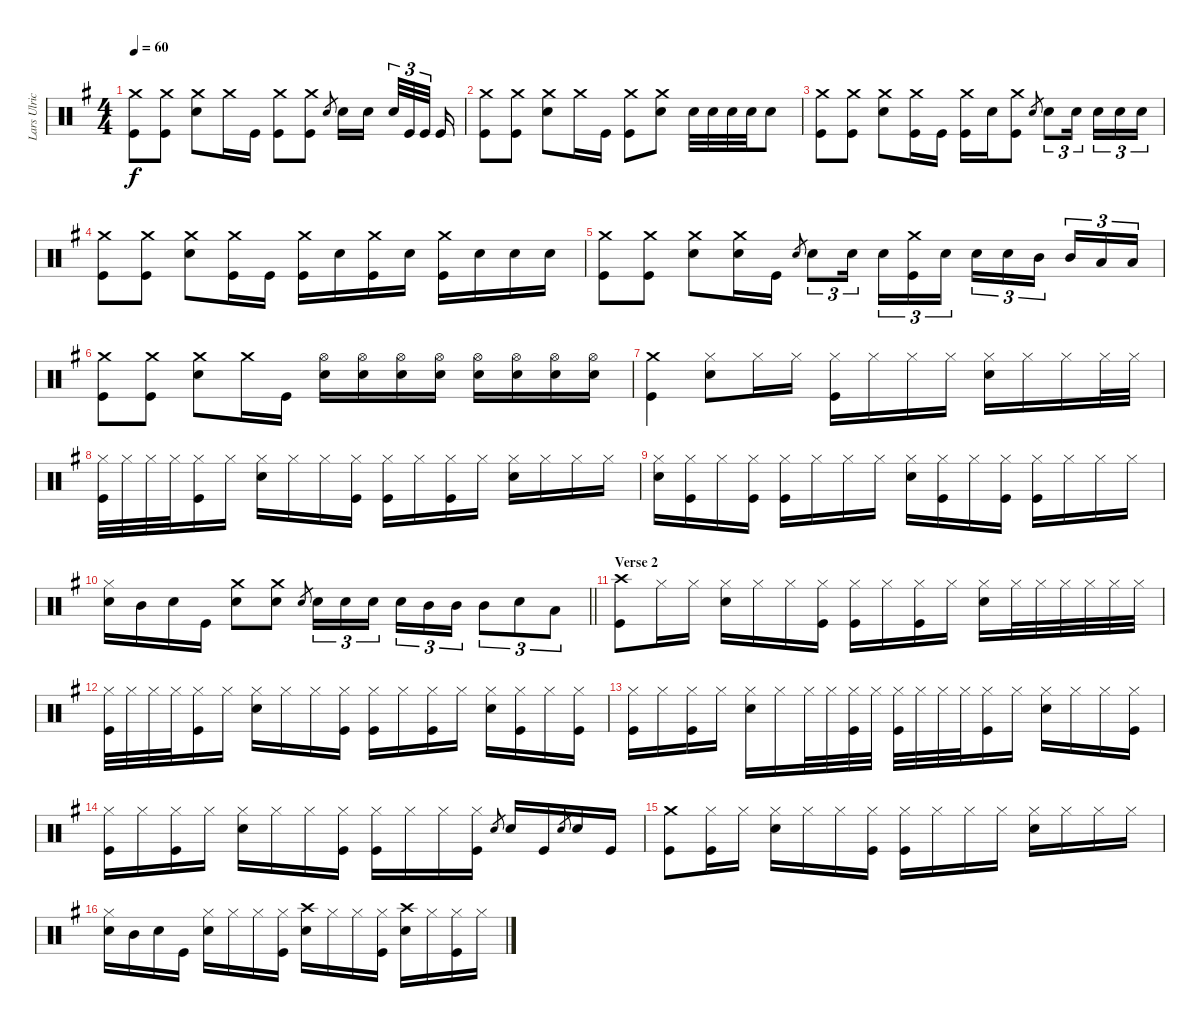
\track ("Lars Ulrich [Drums]" "Lars Ulric") {instrument percussion}
\staff {score}
\articulation defaults
\ts (4 4)
\tempo 60
\clef neutral
\ks g
("Kick (hit)" "Crash medium (hit)").8{dy f} ("Kick (hit)" "Crash medium (hit)").8 ("Electric Snare (hit)" "Crash medium (hit)").8 "Crash medium (hit)".16 "Kick (hit)".16 ("Kick (hit)" "Crash medium (hit)").8 ("Kick (hit)" "Crash medium (hit)").8 "Electric Snare (hit)".8{gr} "Electric Snare (hit)".16 "Electric Snare (hit)".16{beam splitsecondary} "Electric Snare (hit)".32{tu (3 2)} "Kick (hit)".32{tu (3 2)} "Kick (hit)".32{tu (3 2) beam splitsecondary} "Kick (hit)".16 |
("Kick (hit)" "Crash medium (hit)").8 ("Kick (hit)" "Crash medium (hit)").8 ("Electric Snare (hit)" "Crash medium (hit)").8 "Crash medium (hit)".16 "Kick (hit)".16 ("Kick (hit)" "Crash medium (hit)").8 ("Electric Snare (hit)" "Crash medium (hit)").8 "Electric Snare (hit)".32 "Electric Snare (hit)".32 "Electric Snare (hit)".32 "Electric Snare (hit)".32 "Electric Snare (hit)".8 |
("Kick (hit)" "Crash medium (hit)").8 ("Kick (hit)" "Crash medium (hit)").8 ("Electric Snare (hit)" "Crash medium (hit)").8 ("Kick (hit)" "Crash medium (hit)").16 "Kick (hit)".16 ("Kick (hit)" "Crash medium (hit)").16 "Electric Snare (hit)".16 ("Kick (hit)" "Crash medium (hit)").8 "Electric Snare (hit)".8{gr} "Electric Snare (hit)".8{tu (3 2)} "Electric Snare (hit)".16{tu (3 2) beam splitsecondary} "Electric Snare (hit)".16{tu (3 2)} "Electric Snare (hit)".16{tu (3 2)} "Electric Snare (hit)".16{tu (3 2)} |
("Kick (hit)" "Crash medium (hit)").8 ("Kick (hit)" "Crash medium (hit)").8 ("Electric Snare (hit)" "Crash medium (hit)").8 ("Kick (hit)" "Crash medium (hit)").16 "Kick (hit)".16 ("Kick (hit)" "Crash medium (hit)").16 "Electric Snare (hit)".16 ("Kick (hit)" "Crash medium (hit)").16 "Electric Snare (hit)".16 ("Kick (hit)" "Crash medium (hit)").16 "Electric Snare (hit)".16 "Electric Snare (hit)".16 "Electric Snare (hit)".16 |
("Kick (hit)" "Crash medium (hit)").8 ("Kick (hit)" "Crash medium (hit)").8 ("Electric Snare (hit)" "Crash medium (hit)").8 ("Electric Snare (hit)" "Crash medium (hit)").16 "Kick (hit)".16 "Electric Snare (hit)".8{gr} "Electric Snare (hit)".8{tu (3 2)} "Electric Snare (hit)".16{tu (3 2) beam splitsecondary} "Electric Snare (hit)".16{tu (3 2)} ("Kick (hit)" "Crash medium (hit)").16{tu (3 2)} "Electric Snare (hit)".16{tu (3 2)} "Electric Snare (hit)".16{tu (3 2)} "Electric Snare (hit)".16{tu (3 2)} "Mid Tom (hit)".16{tu (3 2) beam splitsecondary} "Mid Tom (hit)".16{tu (3 2)} "Low Tom (hit)".16{tu (3 2)} "Low Tom (hit)".16{tu (3 2)} |
("Kick (hit)" "Crash medium (hit)").8 ("Kick (hit)" "Crash medium (hit)").8 ("Electric Snare (hit)" "Crash medium (hit)").8 "Crash medium (hit)".16 "Kick (hit)".16 ("Electric Snare (hit)" "Hi-Hat (open)").16 ("Electric Snare (hit)" "Hi-Hat (open)").16 ("Electric Snare (hit)" "Hi-Hat (open)").16 ("Electric Snare (hit)" "Hi-Hat (open)").16 ("Electric Snare (hit)" "Hi-Hat (open)").16 ("Electric Snare (hit)" "Hi-Hat (open)").16 ("Electric Snare (hit)" "Hi-Hat (open)").16 ("Electric Snare (hit)" "Hi-Hat (open)").16 |
("Kick (hit)" "Crash medium (hit)").4 ("Electric Snare (hit)" "Hi-Hat (closed)").8 "Hi-Hat (closed)".16 "Hi-Hat (closed)".16 ("Kick (hit)" "Hi-Hat (closed)").16 "Hi-Hat (closed)".16 "Hi-Hat (closed)".16 "Hi-Hat (closed)".16 ("Electric Snare (hit)" "Hi-Hat (closed)").16 "Hi-Hat (closed)".16 "Hi-Hat (closed)".16 "Hi-Hat (closed)".32 "Hi-Hat (closed)".32 |
("Kick (hit)" "Hi-Hat (closed)").32 "Hi-Hat (closed)".32 "Hi-Hat (closed)".32 "Hi-Hat (closed)".32 ("Kick (hit)" "Hi-Hat (closed)").16 "Hi-Hat (closed)".16 ("Electric Snare (hit)" "Hi-Hat (closed)").16 "Hi-Hat (closed)".16 "Hi-Hat (closed)".16 ("Kick (hit)" "Hi-Hat (closed)").16 ("Kick (hit)" "Hi-Hat (closed)").16 "Hi-Hat (closed)".16 ("Kick (hit)" "Hi-Hat (closed)").16 "Hi-Hat (closed)".16 ("Electric Snare (hit)" "Hi-Hat (closed)").16 "Hi-Hat (closed)".16 "Hi-Hat (closed)".16 "Hi-Hat (closed)".16 |
("Electric Snare (hit)" "Hi-Hat (closed)").16 ("Kick (hit)" "Hi-Hat (closed)").16 "Hi-Hat (closed)".16 ("Kick (hit)" "Hi-Hat (closed)").16 ("Kick (hit)" "Hi-Hat (closed)").16 "Hi-Hat (closed)".16 "Hi-Hat (closed)".16 "Hi-Hat (closed)".16 ("Electric Snare (hit)" "Hi-Hat (closed)").16 ("Kick (hit)" "Hi-Hat (closed)").16 "Hi-Hat (closed)".16 ("Kick (hit)" "Hi-Hat (closed)").16 ("Kick (hit)" "Hi-Hat (closed)").16 "Hi-Hat (closed)".16 "Hi-Hat (closed)".16 "Hi-Hat (closed)".16 |
\barLineRight lightlight
("Electric Snare (hit)" "Hi-Hat (closed)").16 "Mid Tom (hit)".16 "Electric Snare (hit)".16 "Kick (hit)".16 ("Electric Snare (hit)" "Crash medium (hit)").8 ("Electric Snare (hit)" "Crash medium (hit)").8 "Electric Snare (hit)".8{gr} "Electric Snare (hit)".16{tu (3 2)} "Electric Snare (hit)".16{tu (3 2)} "Electric Snare (hit)".16{tu (3 2) beam splitsecondary} "Electric Snare (hit)".16{tu (3 2)} "Mid Tom (hit)".16{tu (3 2)} "Mid Tom (hit)".16{tu (3 2)} "Mid Tom (hit)".8{tu (3 2)} "Electric Snare (hit)".8{tu (3 2)} "Low Tom (hit)".8{tu (3 2)} |
\section ("" "Verse 2")
("Kick (hit)" "Crash high (hit)").8 "Hi-Hat (closed)".16 "Hi-Hat (closed)".16 ("Electric Snare (hit)" "Hi-Hat (closed)").16 "Hi-Hat (closed)".16 "Hi-Hat (closed)".16 ("Kick (hit)" "Hi-Hat (closed)").16 ("Kick (hit)" "Hi-Hat (closed)").16 "Hi-Hat (closed)".16 ("Kick (hit)" "Hi-Hat (closed)").16 "Hi-Hat (closed)".16 ("Electric Snare (hit)" "Hi-Hat (closed)").16 "Hi-Hat (closed)".32 "Hi-Hat (closed)".32 "Hi-Hat (closed)".32 "Hi-Hat (closed)".32 "Hi-Hat (closed)".32 "Hi-Hat (closed)".32 |
("Kick (hit)" "Hi-Hat (closed)").32 "Hi-Hat (closed)".32 "Hi-Hat (closed)".32 "Hi-Hat (closed)".32 ("Kick (hit)" "Hi-Hat (closed)").16 "Hi-Hat (closed)".16 ("Electric Snare (hit)" "Hi-Hat (closed)").16 "Hi-Hat (closed)".16 "Hi-Hat (closed)".16 ("Kick (hit)" "Hi-Hat (closed)").16 ("Kick (hit)" "Hi-Hat (closed)").16 "Hi-Hat (closed)".16 ("Kick (hit)" "Hi-Hat (closed)").16 "Hi-Hat (closed)".16 ("Electric Snare (hit)" "Hi-Hat (closed)").16 ("Kick (hit)" "Hi-Hat (closed)").16 "Hi-Hat (closed)".16 ("Kick (hit)" "Hi-Hat (closed)").16 |
("Kick (hit)" "Hi-Hat (closed)").16 "Hi-Hat (closed)".16 ("Kick (hit)" "Hi-Hat (closed)").16 "Hi-Hat (closed)".16 ("Electric Snare (hit)" "Hi-Hat (closed)").16 "Hi-Hat (closed)".16 "Hi-Hat (closed)".32 "Hi-Hat (closed)".32 ("Kick (hit)" "Hi-Hat (closed)").32 "Hi-Hat (closed)".32 ("Kick (hit)" "Hi-Hat (closed)").32 "Hi-Hat (closed)".32 "Hi-Hat (closed)".32 "Hi-Hat (closed)".32 ("Kick (hit)" "Hi-Hat (closed)").16 "Hi-Hat (closed)".16 ("Electric Snare (hit)" "Hi-Hat (closed)").16 "Hi-Hat (closed)".16 "Hi-Hat (closed)".16 ("Kick (hit)" "Hi-Hat (closed)").16 |
("Kick (hit)" "Hi-Hat (closed)").16 "Hi-Hat (closed)".16 ("Kick (hit)" "Hi-Hat (closed)").16 "Hi-Hat (closed)".16 ("Electric Snare (hit)" "Hi-Hat (closed)").16 "Hi-Hat (closed)".16 "Hi-Hat (closed)".16 ("Kick (hit)" "Hi-Hat (closed)").16 ("Kick (hit)" "Hi-Hat (closed)").16 "Hi-Hat (closed)".16 "Hi-Hat (closed)".16 ("Kick (hit)" "Hi-Hat (closed)").16 "Electric Snare (hit)".8{gr} "Electric Snare (hit)".16 "Kick (hit)".16 "Electric Snare (hit)".8{gr} "Electric Snare (hit)".16 "Kick (hit)".16 |
("Kick (hit)" "Crash medium (hit)").8 ("Kick (hit)" "Hi-Hat (closed)").16 "Hi-Hat (closed)".16 ("Electric Snare (hit)" "Hi-Hat (closed)").16 "Hi-Hat (closed)".16 "Hi-Hat (closed)".16 ("Kick (hit)" "Hi-Hat (closed)").16 ("Kick (hit)" "Hi-Hat (closed)").16 "Hi-Hat (closed)".16 "Hi-Hat (closed)".16 "Hi-Hat (closed)".16 ("Electric Snare (hit)" "Hi-Hat (closed)").16 "Hi-Hat (closed)".16 "Hi-Hat (closed)".16 "Hi-Hat (closed)".16 |
("Electric Snare (hit)" "Hi-Hat (closed)").16 "Mid Tom (hit)".16 "Electric Snare (hit)".16 "Kick (hit)".16 ("Electric Snare (hit)" "Hi-Hat (closed)").16 "Hi-Hat (closed)".16 "Hi-Hat (closed)".16 ("Kick (hit)" "Hi-Hat (closed)").16 ("Electric Snare (hit)" "Crash high (hit)").16 "Hi-Hat (closed)".16 "Hi-Hat (closed)".16 ("Kick (hit)" "Hi-Hat (closed)").16 ("Electric Snare (hit)" "Crash high (hit)").16 "Hi-Hat (closed)".16 ("Kick (hit)" "Hi-Hat (closed)").16 "Hi-Hat (closed)".16
